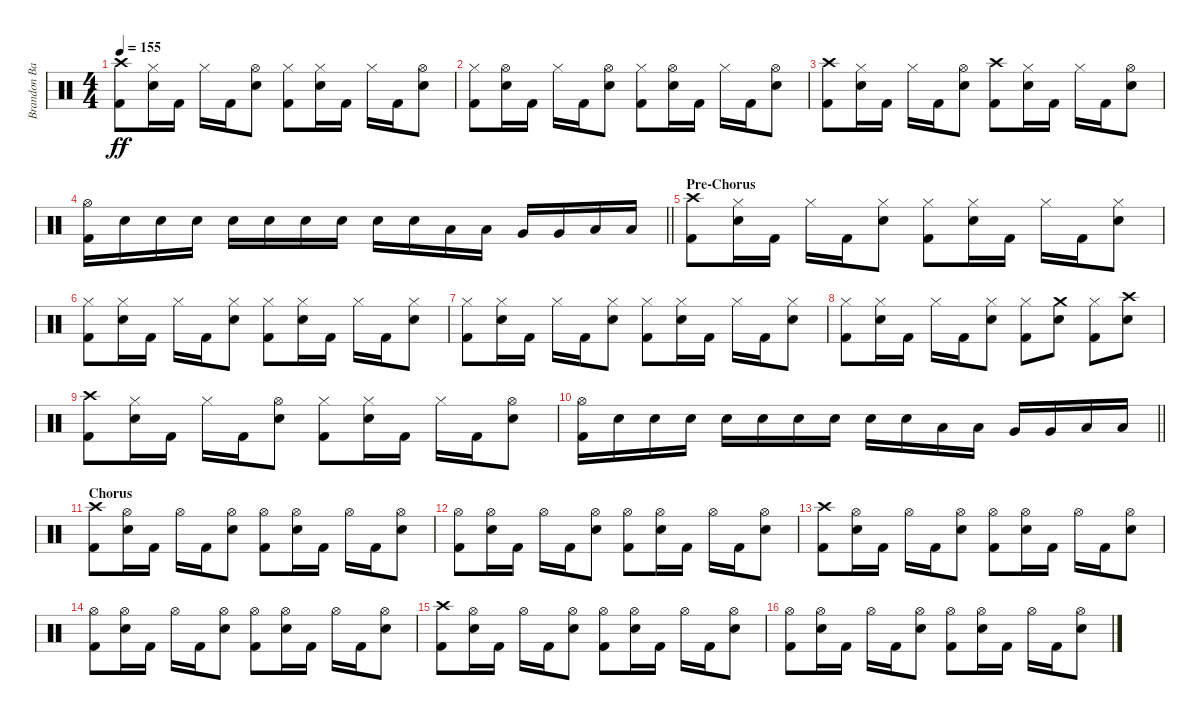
\track ("Brandon Barnes - Drums" "Brandon Ba") {instrument percussion}
\staff {score}
\articulation defaults
\ts (4 4)
\tempo 155
\clef neutral
\ks c
("Kick (hit) 2" "Crash high (hit)").8{dy ff} ("Snare (hit) 2" "Hi-Hat (closed)").16 "Kick (hit) 2".16 "Hi-Hat (closed)".16 "Kick (hit) 2".16 ("Snare (hit) 2" "Hi-Hat (open)").8 ("Kick (hit) 2" "Hi-Hat (closed)").8 ("Snare (hit) 2" "Hi-Hat (closed)").16 "Kick (hit) 2".16 "Hi-Hat (closed)".16 "Kick (hit) 2".16 ("Snare (hit) 2" "Hi-Hat (open)").8 |
("Kick (hit) 2" "Hi-Hat (closed)").8 ("Snare (hit) 2" "Hi-Hat (open)").16 "Kick (hit) 2".16 "Hi-Hat (closed)".16 "Kick (hit) 2".16 ("Snare (hit) 2" "Hi-Hat (open)").8 ("Kick (hit) 2" "Hi-Hat (closed)").8 ("Snare (hit) 2" "Hi-Hat (open)").16 "Kick (hit) 2".16 "Hi-Hat (closed)".16 "Kick (hit) 2".16 ("Snare (hit) 2" "Hi-Hat (open)").8 |
("Kick (hit) 2" "Crash high (hit)").8 ("Snare (hit) 2" "Hi-Hat (closed)").16 "Kick (hit) 2".16 "Hi-Hat (closed)".16 "Kick (hit) 2".16 ("Snare (hit) 2" "Hi-Hat (open)").8 ("Kick (hit) 2" "Crash high (hit)").8 ("Snare (hit) 2" "Hi-Hat (closed)").16 "Kick (hit) 2".16 "Hi-Hat (closed)".16 "Kick (hit) 2".16 ("Snare (hit) 2" "Hi-Hat (open)").8 |
\barLineRight lightlight
("Kick (hit) 2" "Hi-Hat (open)").16 "Snare (hit) 2".16 "Snare (hit) 2".16 "Snare (hit) 2".16 "Snare (hit) 2".16 "Snare (hit) 2".16 "Snare (hit) 2".16 "Snare (hit) 2".16 "Snare (hit) 2".16 "Snare (hit) 2".16 "Low Tom (hit)".16 "Low Tom (hit)".16 "Very Low Tom (hit)".16 "Very Low Tom (hit)".16 "Low Floor Tom (hit)".16 "Low Floor Tom (hit)".16 |
\section ("" "Pre-Chorus")
("Kick (hit) 2" "Crash high (hit)").8 ("Snare (hit) 2" "Hi-Hat (closed)").16 "Kick (hit) 2".16 "Hi-Hat (closed)".16 "Kick (hit) 2".16 ("Snare (hit) 2" "Hi-Hat (closed)").8 ("Kick (hit) 2" "Hi-Hat (closed)").8 ("Snare (hit) 2" "Hi-Hat (closed)").16 "Kick (hit) 2".16 "Hi-Hat (closed)".16 "Kick (hit) 2".16 ("Snare (hit) 2" "Hi-Hat (closed)").8 |
("Kick (hit) 2" "Hi-Hat (closed)").8 ("Snare (hit) 2" "Hi-Hat (closed)").16 "Kick (hit) 2".16 "Hi-Hat (closed)".16 "Kick (hit) 2".16 ("Snare (hit) 2" "Hi-Hat (closed)").8 ("Kick (hit) 2" "Hi-Hat (closed)").8 ("Snare (hit) 2" "Hi-Hat (closed)").16 "Kick (hit) 2".16 "Hi-Hat (closed)".16 "Kick (hit) 2".16 ("Snare (hit) 2" "Hi-Hat (closed)").8 |
("Kick (hit) 2" "Hi-Hat (closed)").8 ("Snare (hit) 2" "Hi-Hat (closed)").16 "Kick (hit) 2".16 "Hi-Hat (closed)".16 "Kick (hit) 2".16 ("Snare (hit) 2" "Hi-Hat (closed)").8 ("Kick (hit) 2" "Hi-Hat (closed)").8 ("Snare (hit) 2" "Hi-Hat (closed)").16 "Kick (hit) 2".16 "Hi-Hat (closed)".16 "Kick (hit) 2".16 ("Snare (hit) 2" "Hi-Hat (closed)").8 |
("Kick (hit) 2" "Hi-Hat (closed)").8 ("Snare (hit) 2" "Hi-Hat (closed)").16 "Kick (hit) 2".16 "Hi-Hat (closed)".16 "Kick (hit) 2".16 ("Snare (hit) 2" "Hi-Hat (closed)").8 ("Kick (hit) 2" "Hi-Hat (closed)").8 ("Snare (hit) 2" "Crash medium (hit)").8 ("Kick (hit) 2" "Hi-Hat (closed)").8 ("Snare (hit) 2" "Crash high (hit)").8 |
("Kick (hit) 2" "Crash high (hit)").8 ("Snare (hit) 2" "Hi-Hat (closed)").16 "Kick (hit) 2".16 "Hi-Hat (closed)".16 "Kick (hit) 2".16 ("Snare (hit) 2" "Hi-Hat (open)").8 ("Kick (hit) 2" "Hi-Hat (closed)").8 ("Snare (hit) 2" "Hi-Hat (closed)").16 "Kick (hit) 2".16 "Hi-Hat (closed)".16 "Kick (hit) 2".16 ("Snare (hit) 2" "Hi-Hat (open)").8 |
\barLineRight lightlight
("Kick (hit) 2" "Hi-Hat (open)").16 "Snare (hit) 2".16 "Snare (hit) 2".16 "Snare (hit) 2".16 "Snare (hit) 2".16 "Snare (hit) 2".16 "Snare (hit) 2".16 "Snare (hit) 2".16 "Snare (hit) 2".16 "Snare (hit) 2".16 "Low Tom (hit)".16 "Low Tom (hit)".16 "Very Low Tom (hit)".16 "Very Low Tom (hit)".16 "Low Floor Tom (hit)".16 "Low Floor Tom (hit)".16 |
\section ("" "Chorus")
("Kick (hit) 2" "Crash high (hit)").8 ("Snare (hit) 2" "Hi-Hat (open)").16 "Kick (hit) 2".16 "Hi-Hat (open)".16 "Kick (hit) 2".16 ("Snare (hit) 2" "Hi-Hat (open)").8 ("Kick (hit) 2" "Hi-Hat (open)").8 ("Snare (hit) 2" "Hi-Hat (open)").16 "Kick (hit) 2".16 "Hi-Hat (open)".16 "Kick (hit) 2".16 ("Snare (hit) 2" "Hi-Hat (open)").8 |
("Kick (hit) 2" "Hi-Hat (open)").8 ("Snare (hit) 2" "Hi-Hat (open)").16 "Kick (hit) 2".16 "Hi-Hat (open)".16 "Kick (hit) 2".16 ("Snare (hit) 2" "Hi-Hat (open)").8 ("Kick (hit) 2" "Hi-Hat (open)").8 ("Snare (hit) 2" "Hi-Hat (open)").16 "Kick (hit) 2".16 "Hi-Hat (open)".16 "Kick (hit) 2".16 ("Snare (hit) 2" "Hi-Hat (open)").8 |
("Kick (hit) 2" "Crash high (hit)").8 ("Snare (hit) 2" "Hi-Hat (open)").16 "Kick (hit) 2".16 "Hi-Hat (open)".16 "Kick (hit) 2".16 ("Snare (hit) 2" "Hi-Hat (open)").8 ("Kick (hit) 2" "Hi-Hat (open)").8 ("Snare (hit) 2" "Hi-Hat (open)").16 "Kick (hit) 2".16 "Hi-Hat (open)".16 "Kick (hit) 2".16 ("Snare (hit) 2" "Hi-Hat (open)").8 |
("Kick (hit) 2" "Hi-Hat (open)").8 ("Snare (hit) 2" "Hi-Hat (open)").16 "Kick (hit) 2".16 "Hi-Hat (open)".16 "Kick (hit) 2".16 ("Snare (hit) 2" "Hi-Hat (open)").8 ("Kick (hit) 2" "Hi-Hat (open)").8 ("Snare (hit) 2" "Hi-Hat (open)").16 "Kick (hit) 2".16 "Hi-Hat (open)".16 "Kick (hit) 2".16 ("Snare (hit) 2" "Hi-Hat (open)").8 |
("Kick (hit) 2" "Crash high (hit)").8 ("Snare (hit) 2" "Hi-Hat (open)").16 "Kick (hit) 2".16 "Hi-Hat (open)".16 "Kick (hit) 2".16 ("Snare (hit) 2" "Hi-Hat (open)").8 ("Kick (hit) 2" "Hi-Hat (open)").8 ("Snare (hit) 2" "Hi-Hat (open)").16 "Kick (hit) 2".16 "Hi-Hat (open)".16 "Kick (hit) 2".16 ("Snare (hit) 2" "Hi-Hat (open)").8 |
("Kick (hit) 2" "Hi-Hat (open)").8 ("Snare (hit) 2" "Hi-Hat (open)").16 "Kick (hit) 2".16 "Hi-Hat (open)".16 "Kick (hit) 2".16 ("Snare (hit) 2" "Hi-Hat (open)").8 ("Kick (hit) 2" "Hi-Hat (open)").8 ("Snare (hit) 2" "Hi-Hat (open)").16 "Kick (hit) 2".16 "Hi-Hat (open)".16 "Kick (hit) 2".16 ("Snare (hit) 2" "Hi-Hat (open)").8
